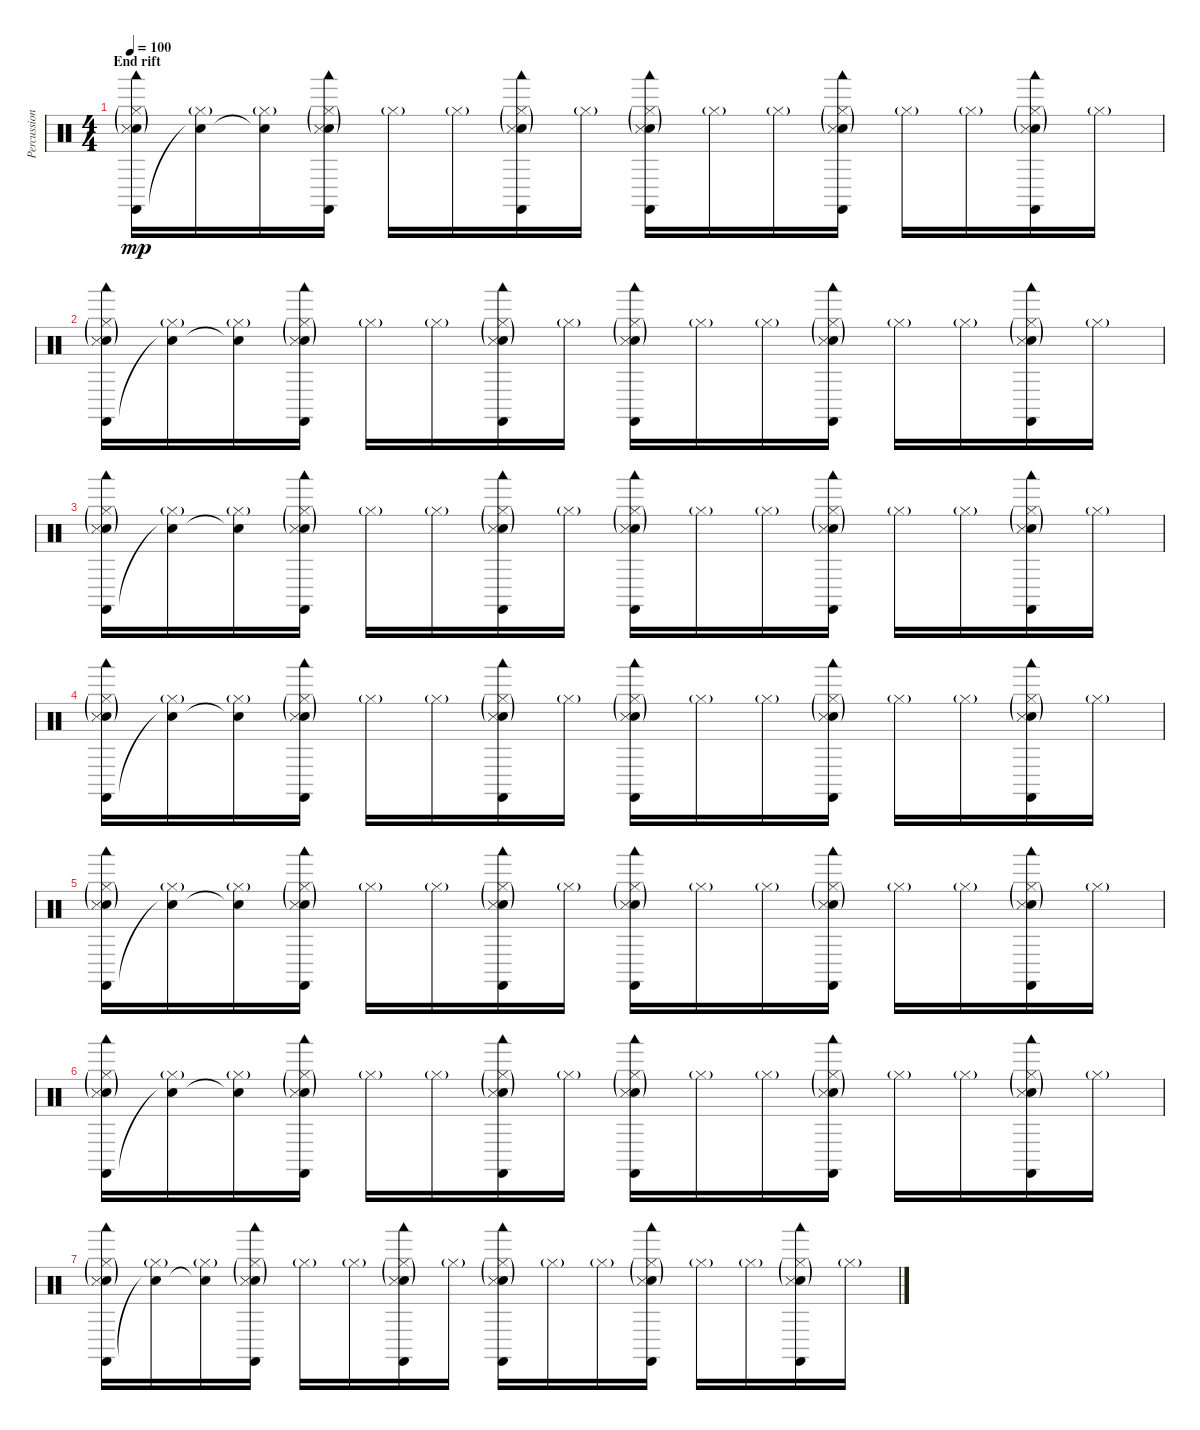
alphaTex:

\track ("Percussion" "Percussion") {instrument percussion}
\staff {score}
\articulation defaults
\ts (4 4)
\section ("" "End rift")
\tempo 100
\clef neutral
\ks c
("Hi-Hat (closed)"{g} "Castanets (hit)" "Woodblock low (hit)" "Electric Snare (hit)"{g} "Metronome (hit)"{g}).16{dy mp} ("Hi-Hat (closed)"{g} "Snare (hit)"{t}).16 ("Hi-Hat (closed)"{g} "Snare (hit)"{t}).16 ("Hi-Hat (closed)"{g} "Castanets (hit)" "Woodblock low (hit)" "Electric Snare (hit)"{g} "Metronome (hit)"{g}).16 "Hi-Hat (closed)"{g}.16 "Hi-Hat (closed)"{g}.16 ("Hi-Hat (closed)"{g} "Castanets (hit)" "Woodblock low (hit)" "Electric Snare (hit)"{g} "Metronome (hit)"{g}).16 "Hi-Hat (closed)"{g}.16 ("Hi-Hat (closed)"{g} "Castanets (hit)" "Woodblock low (hit)" "Electric Snare (hit)"{g} "Metronome (hit)"{g}).16 "Hi-Hat (closed)"{g}.16 "Hi-Hat (closed)"{g}.16 ("Hi-Hat (closed)"{g} "Castanets (hit)" "Woodblock low (hit)" "Electric Snare (hit)"{g} "Metronome (hit)"{g}).16 "Hi-Hat (closed)"{g}.16 "Hi-Hat (closed)"{g}.16 ("Hi-Hat (closed)"{g} "Castanets (hit)" "Woodblock low (hit)" "Electric Snare (hit)"{g} "Metronome (hit)"{g}).16 "Hi-Hat (closed)"{g}.16 |
("Hi-Hat (closed)"{g} "Castanets (hit)" "Woodblock low (hit)" "Electric Snare (hit)"{g} "Metronome (hit)"{g}).16 ("Hi-Hat (closed)"{g} "Snare (hit)"{t}).16 ("Hi-Hat (closed)"{g} "Snare (hit)"{t}).16 ("Hi-Hat (closed)"{g} "Castanets (hit)" "Woodblock low (hit)" "Electric Snare (hit)"{g} "Metronome (hit)"{g}).16 "Hi-Hat (closed)"{g}.16 "Hi-Hat (closed)"{g}.16 ("Hi-Hat (closed)"{g} "Castanets (hit)" "Woodblock low (hit)" "Electric Snare (hit)"{g} "Metronome (hit)"{g}).16 "Hi-Hat (closed)"{g}.16 ("Hi-Hat (closed)"{g} "Castanets (hit)" "Woodblock low (hit)" "Electric Snare (hit)"{g} "Metronome (hit)"{g}).16 "Hi-Hat (closed)"{g}.16 "Hi-Hat (closed)"{g}.16 ("Hi-Hat (closed)"{g} "Castanets (hit)" "Woodblock low (hit)" "Electric Snare (hit)"{g} "Metronome (hit)"{g}).16 "Hi-Hat (closed)"{g}.16 "Hi-Hat (closed)"{g}.16 ("Hi-Hat (closed)"{g} "Castanets (hit)" "Woodblock low (hit)" "Electric Snare (hit)"{g} "Metronome (hit)"{g}).16 "Hi-Hat (closed)"{g}.16 |
("Hi-Hat (closed)"{g} "Castanets (hit)" "Woodblock low (hit)" "Electric Snare (hit)"{g} "Metronome (hit)"{g}).16 ("Hi-Hat (closed)"{g} "Snare (hit)"{t}).16 ("Hi-Hat (closed)"{g} "Snare (hit)"{t}).16 ("Hi-Hat (closed)"{g} "Castanets (hit)" "Woodblock low (hit)" "Electric Snare (hit)"{g} "Metronome (hit)"{g}).16 "Hi-Hat (closed)"{g}.16 "Hi-Hat (closed)"{g}.16 ("Hi-Hat (closed)"{g} "Castanets (hit)" "Woodblock low (hit)" "Electric Snare (hit)"{g} "Metronome (hit)"{g}).16 "Hi-Hat (closed)"{g}.16 ("Hi-Hat (closed)"{g} "Castanets (hit)" "Woodblock low (hit)" "Electric Snare (hit)"{g} "Metronome (hit)"{g}).16 "Hi-Hat (closed)"{g}.16 "Hi-Hat (closed)"{g}.16 ("Hi-Hat (closed)"{g} "Castanets (hit)" "Woodblock low (hit)" "Electric Snare (hit)"{g} "Metronome (hit)"{g}).16 "Hi-Hat (closed)"{g}.16 "Hi-Hat (closed)"{g}.16 ("Hi-Hat (closed)"{g} "Castanets (hit)" "Woodblock low (hit)" "Electric Snare (hit)"{g} "Metronome (hit)"{g}).16 "Hi-Hat (closed)"{g}.16 |
("Hi-Hat (closed)"{g} "Castanets (hit)" "Woodblock low (hit)" "Electric Snare (hit)"{g} "Metronome (hit)"{g}).16 ("Hi-Hat (closed)"{g} "Snare (hit)"{t}).16 ("Hi-Hat (closed)"{g} "Snare (hit)"{t}).16 ("Hi-Hat (closed)"{g} "Castanets (hit)" "Woodblock low (hit)" "Electric Snare (hit)"{g} "Metronome (hit)"{g}).16 "Hi-Hat (closed)"{g}.16 "Hi-Hat (closed)"{g}.16 ("Hi-Hat (closed)"{g} "Castanets (hit)" "Woodblock low (hit)" "Electric Snare (hit)"{g} "Metronome (hit)"{g}).16 "Hi-Hat (closed)"{g}.16 ("Hi-Hat (closed)"{g} "Castanets (hit)" "Woodblock low (hit)" "Electric Snare (hit)"{g} "Metronome (hit)"{g}).16 "Hi-Hat (closed)"{g}.16 "Hi-Hat (closed)"{g}.16 ("Hi-Hat (closed)"{g} "Castanets (hit)" "Woodblock low (hit)" "Electric Snare (hit)"{g} "Metronome (hit)"{g}).16 "Hi-Hat (closed)"{g}.16 "Hi-Hat (closed)"{g}.16 ("Hi-Hat (closed)"{g} "Castanets (hit)" "Woodblock low (hit)" "Electric Snare (hit)"{g} "Metronome (hit)"{g}).16 "Hi-Hat (closed)"{g}.16 |
("Hi-Hat (closed)"{g} "Castanets (hit)" "Woodblock low (hit)" "Electric Snare (hit)"{g} "Metronome (hit)"{g}).16 ("Hi-Hat (closed)"{g} "Snare (hit)"{t}).16 ("Hi-Hat (closed)"{g} "Snare (hit)"{t}).16 ("Hi-Hat (closed)"{g} "Castanets (hit)" "Woodblock low (hit)" "Electric Snare (hit)"{g} "Metronome (hit)"{g}).16 "Hi-Hat (closed)"{g}.16 "Hi-Hat (closed)"{g}.16 ("Hi-Hat (closed)"{g} "Castanets (hit)" "Woodblock low (hit)" "Electric Snare (hit)"{g} "Metronome (hit)"{g}).16 "Hi-Hat (closed)"{g}.16 ("Hi-Hat (closed)"{g} "Castanets (hit)" "Woodblock low (hit)" "Electric Snare (hit)"{g} "Metronome (hit)"{g}).16 "Hi-Hat (closed)"{g}.16 "Hi-Hat (closed)"{g}.16 ("Hi-Hat (closed)"{g} "Castanets (hit)" "Woodblock low (hit)" "Electric Snare (hit)"{g} "Metronome (hit)"{g}).16 "Hi-Hat (closed)"{g}.16 "Hi-Hat (closed)"{g}.16 ("Hi-Hat (closed)"{g} "Castanets (hit)" "Woodblock low (hit)" "Electric Snare (hit)"{g} "Metronome (hit)"{g}).16 "Hi-Hat (closed)"{g}.16 |
("Hi-Hat (closed)"{g} "Castanets (hit)" "Woodblock low (hit)" "Electric Snare (hit)"{g} "Metronome (hit)"{g}).16 ("Hi-Hat (closed)"{g} "Snare (hit)"{t}).16 ("Hi-Hat (closed)"{g} "Snare (hit)"{t}).16 ("Hi-Hat (closed)"{g} "Castanets (hit)" "Woodblock low (hit)" "Electric Snare (hit)"{g} "Metronome (hit)"{g}).16 "Hi-Hat (closed)"{g}.16 "Hi-Hat (closed)"{g}.16 ("Hi-Hat (closed)"{g} "Castanets (hit)" "Woodblock low (hit)" "Electric Snare (hit)"{g} "Metronome (hit)"{g}).16 "Hi-Hat (closed)"{g}.16 ("Hi-Hat (closed)"{g} "Castanets (hit)" "Woodblock low (hit)" "Electric Snare (hit)"{g} "Metronome (hit)"{g}).16 "Hi-Hat (closed)"{g}.16 "Hi-Hat (closed)"{g}.16 ("Hi-Hat (closed)"{g} "Castanets (hit)" "Woodblock low (hit)" "Electric Snare (hit)"{g} "Metronome (hit)"{g}).16 "Hi-Hat (closed)"{g}.16 "Hi-Hat (closed)"{g}.16 ("Hi-Hat (closed)"{g} "Castanets (hit)" "Woodblock low (hit)" "Electric Snare (hit)"{g} "Metronome (hit)"{g}).16 "Hi-Hat (closed)"{g}.16 |
("Hi-Hat (closed)"{g} "Castanets (hit)" "Woodblock low (hit)" "Electric Snare (hit)"{g} "Metronome (hit)"{g}).16 ("Hi-Hat (closed)"{g} "Snare (hit)"{t}).16 ("Hi-Hat (closed)"{g} "Snare (hit)"{t}).16 ("Hi-Hat (closed)"{g} "Castanets (hit)" "Woodblock low (hit)" "Electric Snare (hit)"{g} "Metronome (hit)"{g}).16 "Hi-Hat (closed)"{g}.16 "Hi-Hat (closed)"{g}.16 ("Hi-Hat (closed)"{g} "Castanets (hit)" "Woodblock low (hit)" "Electric Snare (hit)"{g} "Metronome (hit)"{g}).16 "Hi-Hat (closed)"{g}.16 ("Hi-Hat (closed)"{g} "Castanets (hit)" "Woodblock low (hit)" "Electric Snare (hit)"{g} "Metronome (hit)"{g}).16 "Hi-Hat (closed)"{g}.16 "Hi-Hat (closed)"{g}.16 ("Hi-Hat (closed)"{g} "Castanets (hit)" "Woodblock low (hit)" "Electric Snare (hit)"{g} "Metronome (hit)"{g}).16 "Hi-Hat (closed)"{g}.16 "Hi-Hat (closed)"{g}.16 ("Hi-Hat (closed)"{g} "Castanets (hit)" "Woodblock low (hit)" "Electric Snare (hit)"{g} "Metronome (hit)"{g}).16 "Hi-Hat (closed)"{g}.16
